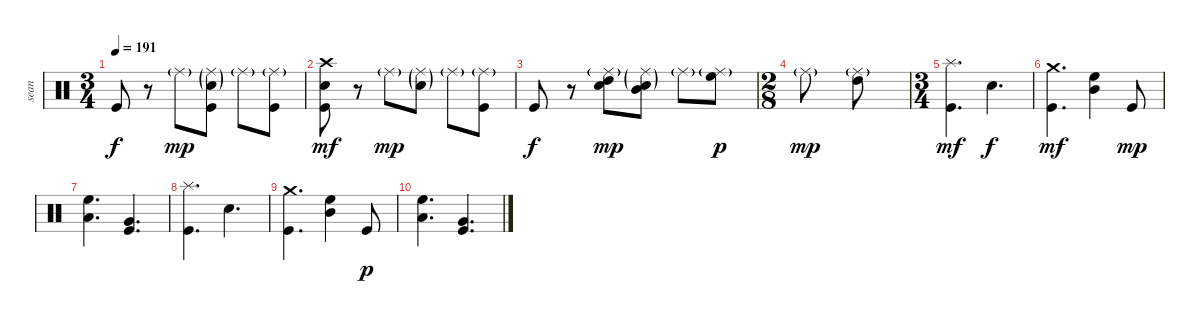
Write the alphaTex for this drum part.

\track ("sean" "sean") {instrument percussion}
\staff {score}
\articulation defaults
\ts (3 4)
\tempo 191
\clef neutral
\ks c "Kick (hit)".8{dy f}
r.8 "Ride (middle)"{g}.8{dy mp} ("Electric Snare (hit)"{g} "Ride (middle)"{g} "Kick (hit)").8 "Ride (middle)"{g}.8 ("Kick (hit)" "Ride (middle)"{g}).8 |
("Crash high (hit)" "Electric Snare (hit)" "Kick (hit)").8{dy mf} r.8 "Ride (middle)"{g}.8{dy mp} ("Electric Snare (hit)"{g} "Ride (middle)"{g}).8 "Ride (middle)"{g}.8 ("Kick (hit)" "Ride (middle)"{g}).8 |
"Kick (hit)".8{dy f} r.8 ("Electric Snare (hit)" "High Tom (hit)" "Ride (middle)"{g}).8{dy mp} ("Electric Snare (hit)"{g} "Ride (middle)"{g} "Mid Tom (hit)").8 "Ride (middle)"{g}.8 ("High Floor Tom (hit)" "Ride (middle)"{g}).8{dy p} |
\ts (2 8)
"Ride (middle)"{g}.8{dy mp volume 0} ("High Tom (hit)" "Ride (middle)"{g}).8 |
\ts (3 4)
("Splash (hit)" "Kick (hit)").4{d dy mf} "Electric Snare (hit)".4{d dy f} |
("Crash medium (hit)" "Kick (hit)").4{d dy mf} ("Mid Tom (hit)" "High Floor Tom (hit)").4 "Kick (hit)".8{dy mp} |
("Low Tom (hit)" "High Floor Tom (hit)").4{d} ("Very Low Tom (hit)" "Kick (hit)").4{d} |
("Splash (hit)" "Kick (hit)").4{d} "Electric Snare (hit)".4{d} |
("Crash medium (hit)" "Kick (hit)").4{d} ("Mid Tom (hit)" "High Floor Tom (hit)").4 "Kick (hit)".8{dy p} |
("Low Tom (hit)" "High Floor Tom (hit)").4{d} ("Very Low Tom (hit)" "Kick (hit)").4{d}
